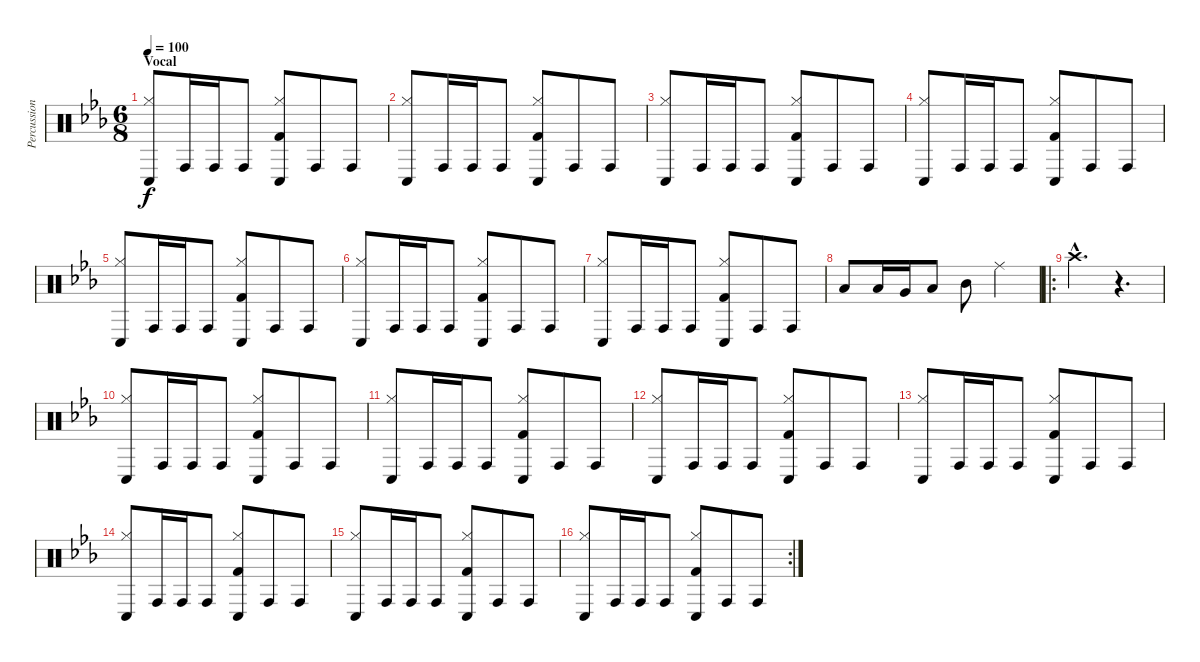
\track ("Percussion" "Percussion") {instrument percussion}
\staff {score}
\articulation defaults
\ts (6 8)
\section ("" "Vocal")
\tempo 100
\clef neutral
\ks eb
("Hi-Hat (closed)" "Conga low (hit)").8{dy f} "Conga high (hit)".16 "Conga high (hit)".16 "Conga high (hit)".8 ("Hi-Hat (closed)" "Conga low (hit)" "Kick (hit) 2").8 "Conga high (hit)".8 "Conga high (hit)".8 |
("Hi-Hat (closed)" "Conga low (hit)").8 "Conga high (hit)".16 "Conga high (hit)".16 "Conga high (hit)".8 ("Hi-Hat (closed)" "Conga low (hit)" "Kick (hit) 2").8 "Conga high (hit)".8 "Conga high (hit)".8 |
("Hi-Hat (closed)" "Conga low (hit)").8 "Conga high (hit)".16 "Conga high (hit)".16 "Conga high (hit)".8 ("Hi-Hat (closed)" "Conga low (hit)" "Kick (hit) 2").8 "Conga high (hit)".8 "Conga high (hit)".8 |
("Hi-Hat (closed)" "Conga low (hit)").8 "Conga high (hit)".16 "Conga high (hit)".16 "Conga high (hit)".8 ("Hi-Hat (closed)" "Conga low (hit)" "Kick (hit) 2").8 "Conga high (hit)".8 "Conga high (hit)".8 |
("Hi-Hat (closed)" "Conga low (hit)").8 "Conga high (hit)".16 "Conga high (hit)".16 "Conga high (hit)".8 ("Hi-Hat (closed)" "Conga low (hit)" "Kick (hit) 2").8 "Conga high (hit)".8 "Conga high (hit)".8 |
("Hi-Hat (closed)" "Conga low (hit)").8 "Conga high (hit)".16 "Conga high (hit)".16 "Conga high (hit)".8 ("Hi-Hat (closed)" "Conga low (hit)" "Kick (hit) 2").8 "Conga high (hit)".8 "Conga high (hit)".8 |
("Hi-Hat (closed)" "Conga low (hit)").8 "Conga high (hit)".16 "Conga high (hit)".16 "Conga high (hit)".8 ("Hi-Hat (closed)" "Conga low (hit)" "Kick (hit) 2").8 "Conga high (hit)".8 "Conga high (hit)".8 |
"Low Floor Tom (hit)".8 "Low Floor Tom (hit)".16 "Very Low Tom (hit)".16 "Low Tom (hit)".8 "Mid Tom (hit)".8 "Ride (middle)".4 |
\ro "Crash high (hit)"{hac}.4{d}
r.4{d} |
("Hi-Hat (closed)" "Conga low (hit)").8 "Conga high (hit)".16 "Conga high (hit)".16 "Conga high (hit)".8 ("Hi-Hat (closed)" "Conga low (hit)" "Kick (hit) 2").8 "Conga high (hit)".8 "Conga high (hit)".8 |
("Hi-Hat (closed)" "Conga low (hit)").8 "Conga high (hit)".16 "Conga high (hit)".16 "Conga high (hit)".8 ("Hi-Hat (closed)" "Conga low (hit)" "Kick (hit) 2").8 "Conga high (hit)".8 "Conga high (hit)".8 |
("Hi-Hat (closed)" "Conga low (hit)").8 "Conga high (hit)".16 "Conga high (hit)".16 "Conga high (hit)".8 ("Hi-Hat (closed)" "Conga low (hit)" "Kick (hit) 2").8 "Conga high (hit)".8 "Conga high (hit)".8 |
("Hi-Hat (closed)" "Conga low (hit)").8 "Conga high (hit)".16 "Conga high (hit)".16 "Conga high (hit)".8 ("Hi-Hat (closed)" "Conga low (hit)" "Kick (hit) 2").8 "Conga high (hit)".8 "Conga high (hit)".8 |
("Hi-Hat (closed)" "Conga low (hit)").8 "Conga high (hit)".16 "Conga high (hit)".16 "Conga high (hit)".8 ("Hi-Hat (closed)" "Conga low (hit)" "Kick (hit) 2").8 "Conga high (hit)".8 "Conga high (hit)".8 |
("Hi-Hat (closed)" "Conga low (hit)").8 "Conga high (hit)".16 "Conga high (hit)".16 "Conga high (hit)".8 ("Hi-Hat (closed)" "Conga low (hit)" "Kick (hit) 2").8 "Conga high (hit)".8 "Conga high (hit)".8 |
\rc 2
("Hi-Hat (closed)" "Conga low (hit)").8 "Conga high (hit)".16 "Conga high (hit)".16 "Conga high (hit)".8 ("Hi-Hat (closed)" "Conga low (hit)" "Kick (hit) 2").8 "Conga high (hit)".8 "Conga high (hit)".8
